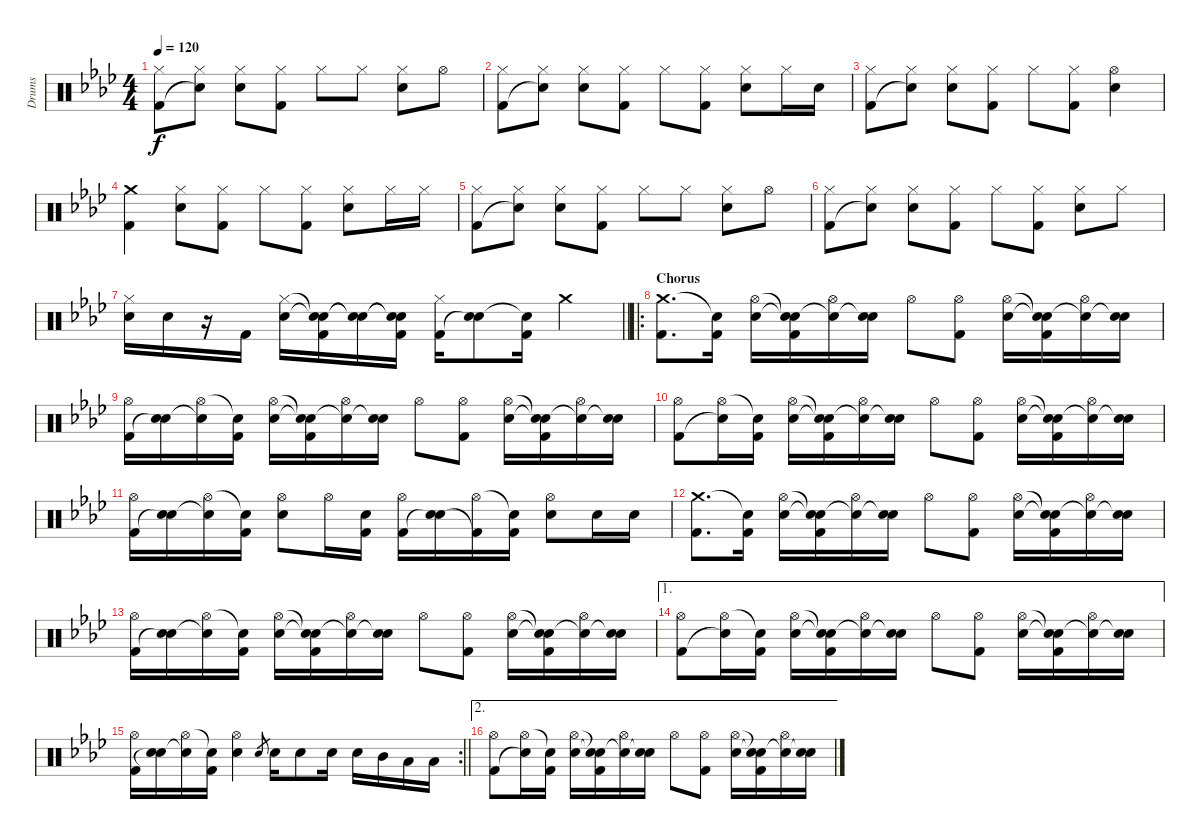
\track ("Drums" "Drums") {instrument percussion}
\staff {score}
\articulation defaults
\ts (4 4)
\tempo 120
\clef neutral
\ks fminor
("Hi-Hat (closed)" "Kick (hit) 2").8{dy f} ("Hi-Hat (closed)" "Snare (hit)"{t}).8 ("Hi-Hat (closed)" "Electric Snare (hit)").8 ("Hi-Hat (closed)" "Kick (hit) 2").8 "Hi-Hat (closed)".8 "Hi-Hat (closed)".8 ("Hi-Hat (closed)" "Electric Snare (hit)").8 "Hi-Hat (open)".8 |
("Hi-Hat (closed)" "Kick (hit) 2").8 ("Hi-Hat (closed)" "Snare (hit)"{t}).8 ("Hi-Hat (closed)" "Electric Snare (hit)").8 ("Hi-Hat (closed)" "Kick (hit) 2").8 "Hi-Hat (closed)".8 ("Hi-Hat (closed)" "Kick (hit) 2").8 ("Hi-Hat (closed)" "Electric Snare (hit)").8 "Hi-Hat (closed)".16 "Electric Snare (hit)".16 |
("Hi-Hat (closed)" "Kick (hit) 2").8 ("Hi-Hat (closed)" "Snare (hit)"{t}).8 ("Hi-Hat (closed)" "Electric Snare (hit)").8 ("Hi-Hat (closed)" "Kick (hit) 2").8 "Hi-Hat (closed)".8 ("Hi-Hat (closed)" "Kick (hit) 2").8 ("Hi-Hat (open)" "Electric Snare (hit)").4 |
("Crash medium (hit)" "Kick (hit) 2").4 ("Hi-Hat (closed)" "Electric Snare (hit)").8 ("Hi-Hat (closed)" "Kick (hit) 2").8 "Hi-Hat (closed)".8 ("Hi-Hat (closed)" "Kick (hit) 2").8 ("Hi-Hat (closed)" "Electric Snare (hit)").8 "Hi-Hat (closed)".16 "Hi-Hat (closed)".16 |
("Hi-Hat (closed)" "Kick (hit) 2").8 ("Hi-Hat (closed)" "Snare (hit)"{t}).8 ("Hi-Hat (closed)" "Electric Snare (hit)").8 ("Hi-Hat (closed)" "Kick (hit) 2").8 "Hi-Hat (closed)".8 "Hi-Hat (closed)".8 ("Hi-Hat (closed)" "Electric Snare (hit)").8 "Hi-Hat (open)".8 |
("Hi-Hat (closed)" "Kick (hit) 2").8 ("Hi-Hat (closed)" "Snare (hit)"{t}).8 ("Hi-Hat (closed)" "Electric Snare (hit)").8 ("Hi-Hat (closed)" "Kick (hit) 2").8 "Hi-Hat (closed)".8 ("Hi-Hat (closed)" "Kick (hit) 2").8 ("Hi-Hat (closed)" "Electric Snare (hit)").8 "Hi-Hat (closed)".8 |
\barLineRight lightlight
("Hi-Hat (closed)" "Electric Snare (hit)").16 "Electric Snare (hit)".16 r.16 "Kick (hit) 2".16 ("Hi-Hat (closed)" "Electric Snare (hit)").16 ("Snare (hit)"{t} "Snare (hit)"{t} "Kick (hit) 2").16 ("Snare (hit)"{t} "Snare (hit)"{t}).16 ("Snare (hit)"{t} "Snare (hit)"{t} "Kick (hit) 2").16 ("Hi-Hat (closed)" "Kick (hit) 2").16 ("Electric Snare (hit)" "Snare (hit)"{t}).8 ("Snare (hit)"{t} "Kick (hit) 2").16 "Crash medium (hit)".4 |
\ro
\section ("" "Chorus")
("Crash medium (hit)" "Kick (hit) 2").8{d} ("Snare (hit)"{t} "Kick (hit) 2").16 ("Hi-Hat (open)" "Electric Snare (hit)").16 ("Snare (hit)"{t} "Snare (hit)"{t} "Kick (hit) 2").16 ("Hi-Hat (open)" "Snare (hit)"{t}).16 ("Electric Snare (hit)" "Snare (hit)"{t}).16 "Hi-Hat (open)".8 ("Hi-Hat (open)" "Kick (hit) 2").8 ("Hi-Hat (open)" "Electric Snare (hit)").16 ("Snare (hit)"{t} "Snare (hit)"{t} "Kick (hit) 2").16 ("Hi-Hat (open)" "Snare (hit)"{t}).16 ("Electric Snare (hit)" "Snare (hit)"{t}).16 |
("Hi-Hat (open)" "Kick (hit) 2").16 ("Electric Snare (hit)" "Snare (hit)"{t}).16 ("Hi-Hat (open)" "Snare (hit)"{t}).16 ("Snare (hit)"{t} "Kick (hit) 2").16 ("Hi-Hat (open)" "Electric Snare (hit)").16 ("Snare (hit)"{t} "Snare (hit)"{t} "Kick (hit) 2").16 ("Hi-Hat (open)" "Snare (hit)"{t}).16 ("Electric Snare (hit)" "Snare (hit)"{t}).16 "Hi-Hat (open)".8 ("Hi-Hat (open)" "Kick (hit) 2").8 ("Hi-Hat (open)" "Electric Snare (hit)").16 ("Snare (hit)"{t} "Snare (hit)"{t} "Kick (hit) 2").16 ("Hi-Hat (open)" "Snare (hit)"{t}).16 ("Electric Snare (hit)" "Snare (hit)"{t}).16 |
("Hi-Hat (open)" "Kick (hit) 2").8 ("Hi-Hat (open)" "Snare (hit)"{t}).16 ("Snare (hit)"{t} "Kick (hit) 2").16 ("Hi-Hat (open)" "Electric Snare (hit)").16 ("Snare (hit)"{t} "Snare (hit)"{t} "Kick (hit) 2").16 ("Hi-Hat (open)" "Snare (hit)"{t}).16 ("Electric Snare (hit)" "Snare (hit)"{t}).16 "Hi-Hat (open)".8 ("Hi-Hat (open)" "Kick (hit) 2").8 ("Hi-Hat (open)" "Electric Snare (hit)").16 ("Snare (hit)"{t} "Snare (hit)"{t} "Kick (hit) 2").16 ("Hi-Hat (open)" "Snare (hit)"{t}).16 ("Electric Snare (hit)" "Snare (hit)"{t}).16 |
("Hi-Hat (open)" "Kick (hit) 2").16 ("Electric Snare (hit)" "Snare (hit)"{t}).16 ("Hi-Hat (open)" "Snare (hit)"{t}).16 ("Snare (hit)"{t} "Kick (hit) 2").16 ("Hi-Hat (open)" "Electric Snare (hit)").8 "Hi-Hat (open)".16 ("Electric Snare (hit)" "Kick (hit) 2").16 ("Hi-Hat (open)" "Kick (hit) 2").16 ("Electric Snare (hit)" "Snare (hit)"{t}).16 ("Hi-Hat (open)" "Kick (hit) 2"{t}).16 ("Snare (hit)"{t} "Kick (hit) 2").16 ("Hi-Hat (open)" "Electric Snare (hit)").8 "Electric Snare (hit)".16 "Electric Snare (hit)".16 |
("Crash medium (hit)" "Kick (hit) 2").8{d} ("Snare (hit)"{t} "Kick (hit) 2").16 ("Hi-Hat (open)" "Electric Snare (hit)").16 ("Snare (hit)"{t} "Snare (hit)"{t} "Kick (hit) 2").16 ("Hi-Hat (open)" "Snare (hit)"{t}).16 ("Electric Snare (hit)" "Snare (hit)"{t}).16 "Hi-Hat (open)".8 ("Hi-Hat (open)" "Kick (hit) 2").8 ("Hi-Hat (open)" "Electric Snare (hit)").16 ("Snare (hit)"{t} "Snare (hit)"{t} "Kick (hit) 2").16 ("Hi-Hat (open)" "Snare (hit)"{t}).16 ("Electric Snare (hit)" "Snare (hit)"{t}).16 |
("Hi-Hat (open)" "Kick (hit) 2").16 ("Electric Snare (hit)" "Snare (hit)"{t}).16 ("Hi-Hat (open)" "Snare (hit)"{t}).16 ("Snare (hit)"{t} "Kick (hit) 2").16 ("Hi-Hat (open)" "Electric Snare (hit)").16 ("Snare (hit)"{t} "Snare (hit)"{t} "Kick (hit) 2").16 ("Hi-Hat (open)" "Snare (hit)"{t}).16 ("Electric Snare (hit)" "Snare (hit)"{t}).16 "Hi-Hat (open)".8 ("Hi-Hat (open)" "Kick (hit) 2").8 ("Hi-Hat (open)" "Electric Snare (hit)").16 ("Snare (hit)"{t} "Snare (hit)"{t} "Kick (hit) 2").16 ("Hi-Hat (open)" "Snare (hit)"{t}).16 ("Electric Snare (hit)" "Snare (hit)"{t}).16 |
\ae 1
("Hi-Hat (open)" "Kick (hit) 2").8 ("Hi-Hat (open)" "Snare (hit)"{t}).16 ("Snare (hit)"{t} "Kick (hit) 2").16 ("Hi-Hat (open)" "Electric Snare (hit)").16 ("Snare (hit)"{t} "Snare (hit)"{t} "Kick (hit) 2").16 ("Hi-Hat (open)" "Snare (hit)"{t}).16 ("Electric Snare (hit)" "Snare (hit)"{t}).16 "Hi-Hat (open)".8 ("Hi-Hat (open)" "Kick (hit) 2").8 ("Hi-Hat (open)" "Electric Snare (hit)").16 ("Snare (hit)"{t} "Snare (hit)"{t} "Kick (hit) 2").16 ("Hi-Hat (open)" "Snare (hit)"{t}).16 ("Electric Snare (hit)" "Snare (hit)"{t}).16 |
\rc 2
\barLineRight lightlight
("Hi-Hat (open)" "Kick (hit) 2").16 ("Electric Snare (hit)" "Snare (hit)"{t}).16 ("Hi-Hat (open)" "Snare (hit)"{t}).16 ("Snare (hit)"{t} "Kick (hit) 2").16 ("Hi-Hat (open)" "Electric Snare (hit)").4 "Electric Snare (hit)".8{gr} "Electric Snare (hit)".16 "Electric Snare (hit)".8 "Electric Snare (hit)".16 "Electric Snare (hit)".16 "Mid Tom (hit)".16 "Low Tom (hit)".16 "Low Floor Tom (hit)".16 |
\ae 2
("Hi-Hat (open)" "Kick (hit) 2").8 ("Hi-Hat (open)" "Snare (hit)"{t}).16 ("Snare (hit)"{t} "Kick (hit) 2").16 ("Hi-Hat (open)" "Electric Snare (hit)").16 ("Snare (hit)"{t} "Snare (hit)"{t} "Kick (hit) 2").16 ("Hi-Hat (open)" "Snare (hit)"{t}).16 ("Electric Snare (hit)" "Snare (hit)"{t}).16 "Hi-Hat (open)".8 ("Hi-Hat (open)" "Kick (hit) 2").8 ("Hi-Hat (open)" "Electric Snare (hit)").16 ("Snare (hit)"{t} "Snare (hit)"{t} "Kick (hit) 2").16 ("Hi-Hat (open)" "Snare (hit)"{t}).16 ("Electric Snare (hit)" "Snare (hit)"{t}).16
